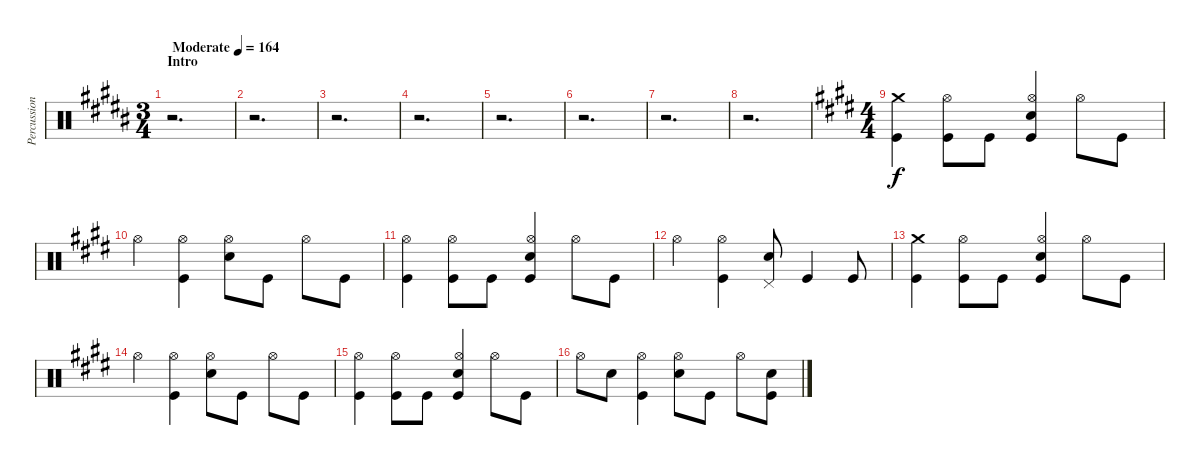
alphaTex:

\track ("Percussion" "Percussion") {instrument percussion}
\staff {score}
\articulation defaults
\ts (3 4)
\section ("" "Intro")
\tempo (164 "Moderate")
\clef neutral
\ks b
r.2{d dy f} |
r.2{d} |
r.2{d} |
r.2{d} |
r.2{d} |
r.2{d} |
r.2{d} |
r.2{d} |
\ts (4 4)
\ks e
("Crash medium (hit)" "Kick (hit)").4 ("Hi-Hat (open)" "Kick (hit)").8 "Kick (hit)".8 ("Hi-Hat (open)" "Electric Snare (hit)" "Kick (hit)").4 "Hi-Hat (open)".8 "Kick (hit)".8 |
"Hi-Hat (open)".4 ("Hi-Hat (open)" "Kick (hit)").4 ("Hi-Hat (open)" "Electric Snare (hit)").8 "Kick (hit)".8 "Hi-Hat (open)".8 "Kick (hit)".8 |
("Hi-Hat (open)" "Kick (hit)").4 ("Hi-Hat (open)" "Kick (hit)").8 "Kick (hit)".8 ("Hi-Hat (open)" "Electric Snare (hit)" "Kick (hit)").4 "Hi-Hat (open)".8 "Kick (hit)".8 |
"Hi-Hat (open)".4 ("Hi-Hat (open)" "Kick (hit)").4 ("Pedal Hi-Hat (hit)" "Electric Snare (hit)").8 "Kick (hit)".4 "Kick (hit)".8 |
("Crash medium (hit)" "Kick (hit)").4 ("Hi-Hat (open)" "Kick (hit)").8 "Kick (hit)".8 ("Hi-Hat (open)" "Electric Snare (hit)" "Kick (hit)").4 "Hi-Hat (open)".8 "Kick (hit)".8 |
"Hi-Hat (open)".4 ("Hi-Hat (open)" "Kick (hit)").4 ("Hi-Hat (open)" "Electric Snare (hit)").8 "Kick (hit)".8 "Hi-Hat (open)".8 "Kick (hit)".8 |
("Hi-Hat (open)" "Kick (hit)").4 ("Hi-Hat (open)" "Kick (hit)").8 "Kick (hit)".8 ("Hi-Hat (open)" "Electric Snare (hit)" "Kick (hit)").4 "Hi-Hat (open)".8 "Kick (hit)".8 |
"Hi-Hat (open)".8 "Electric Snare (hit)".8 ("Hi-Hat (open)" "Kick (hit)").4 ("Hi-Hat (open)" "Electric Snare (hit)").8 "Kick (hit)".8 "Hi-Hat (open)".8 ("Electric Snare (hit)" "Kick (hit)").8
